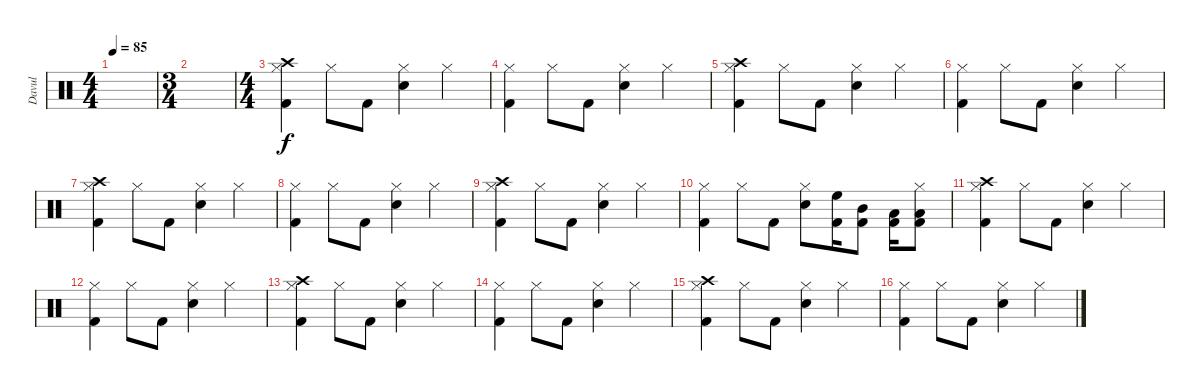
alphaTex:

\track ("Davul" "Davul") {instrument percussion}
\staff {score}
\articulation defaults
\ts (4 4)
\tempo 85
\clef neutral
\ks c
|
\ts (3 4)
|
\ts (4 4)
("Hi-Hat (closed)" "Crash high (hit)" "Kick (hit) 2").4 "Hi-Hat (closed)".8 "Kick (hit) 2".8 ("Hi-Hat (closed)" "Snare (hit) 2").4 "Hi-Hat (closed)".4 |
("Hi-Hat (closed)" "Kick (hit) 2").4 "Hi-Hat (closed)".8 "Kick (hit) 2".8 ("Hi-Hat (closed)" "Snare (hit) 2").4 "Hi-Hat (closed)".4 |
("Hi-Hat (closed)" "Crash high (hit)" "Kick (hit) 2").4 "Hi-Hat (closed)".8 "Kick (hit) 2".8 ("Hi-Hat (closed)" "Snare (hit) 2").4 "Hi-Hat (closed)".4 |
("Hi-Hat (closed)" "Kick (hit) 2").4 "Hi-Hat (closed)".8 "Kick (hit) 2".8 ("Hi-Hat (closed)" "Snare (hit) 2").4 "Hi-Hat (closed)".4 |
("Hi-Hat (closed)" "Crash high (hit)" "Kick (hit) 2").4 "Hi-Hat (closed)".8 "Kick (hit) 2".8 ("Hi-Hat (closed)" "Snare (hit) 2").4 "Hi-Hat (closed)".4 |
("Hi-Hat (closed)" "Kick (hit) 2").4 "Hi-Hat (closed)".8 "Kick (hit) 2".8 ("Hi-Hat (closed)" "Snare (hit) 2").4 "Hi-Hat (closed)".4 |
("Hi-Hat (closed)" "Crash high (hit)" "Kick (hit) 2").4 "Hi-Hat (closed)".8 "Kick (hit) 2".8 ("Hi-Hat (closed)" "Snare (hit) 2").4 "Hi-Hat (closed)".4 |
("Hi-Hat (closed)" "Kick (hit) 2").4 "Hi-Hat (closed)".8 "Kick (hit) 2".8 ("Hi-Hat (closed)" "Snare (hit) 2").8 ("High Floor Tom (hit)" "Kick (hit) 2").16 ("Mid Tom (hit)" "Kick (hit) 2").8 ("Low Tom (hit)" "Kick (hit) 2").16 ("Hi-Hat (closed)" "Low Floor Tom (hit)" "Kick (hit) 2").8 |
("Hi-Hat (closed)" "Crash high (hit)" "Kick (hit) 2").4 "Hi-Hat (closed)".8 "Kick (hit) 2".8 ("Hi-Hat (closed)" "Snare (hit) 2").4 "Hi-Hat (closed)".4 |
("Hi-Hat (closed)" "Kick (hit) 2").4 "Hi-Hat (closed)".8 "Kick (hit) 2".8 ("Hi-Hat (closed)" "Snare (hit) 2").4 "Hi-Hat (closed)".4 |
("Hi-Hat (closed)" "Crash high (hit)" "Kick (hit) 2").4 "Hi-Hat (closed)".8 "Kick (hit) 2".8 ("Hi-Hat (closed)" "Snare (hit) 2").4 "Hi-Hat (closed)".4 |
("Hi-Hat (closed)" "Kick (hit) 2").4 "Hi-Hat (closed)".8 "Kick (hit) 2".8 ("Hi-Hat (closed)" "Snare (hit) 2").4 "Hi-Hat (closed)".4 |
("Hi-Hat (closed)" "Crash high (hit)" "Kick (hit) 2").4 "Hi-Hat (closed)".8 "Kick (hit) 2".8 ("Hi-Hat (closed)" "Snare (hit) 2").4 "Hi-Hat (closed)".4 |
("Hi-Hat (closed)" "Kick (hit) 2").4 "Hi-Hat (closed)".8 "Kick (hit) 2".8 ("Hi-Hat (closed)" "Snare (hit) 2").4 "Hi-Hat (closed)".4
